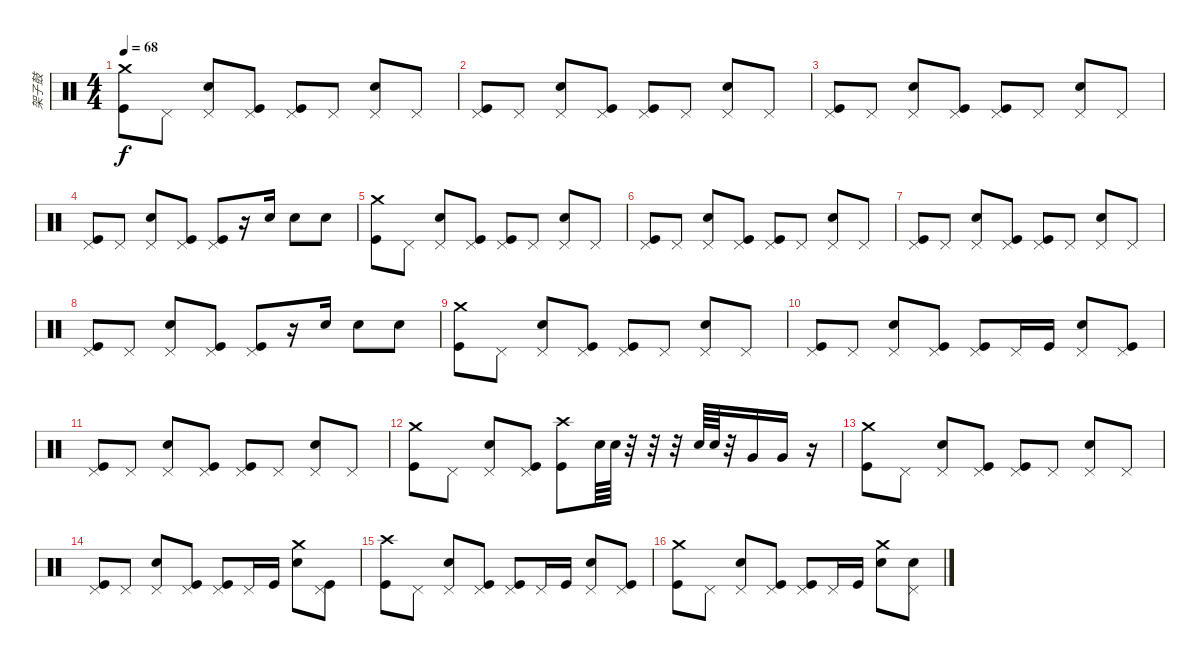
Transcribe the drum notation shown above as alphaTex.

\track ("架子鼓" "架子鼓") {instrument percussion}
\staff {score}
\articulation defaults
\ts (4 4)
\tempo 68
\clef neutral
\ks c
("Crash medium (hit)" "Kick (hit)").8{dy f} "Pedal Hi-Hat (hit)".8 ("Pedal Hi-Hat (hit)" "Snare (hit) 2").8 ("Pedal Hi-Hat (hit)" "Kick (hit)").8 ("Pedal Hi-Hat (hit)" "Kick (hit)").8 "Pedal Hi-Hat (hit)".8 ("Pedal Hi-Hat (hit)" "Snare (hit) 2").8 "Pedal Hi-Hat (hit)".8 |
("Pedal Hi-Hat (hit)" "Kick (hit)").8 "Pedal Hi-Hat (hit)".8 ("Pedal Hi-Hat (hit)" "Snare (hit) 2").8 ("Pedal Hi-Hat (hit)" "Kick (hit)").8 ("Pedal Hi-Hat (hit)" "Kick (hit)").8 "Pedal Hi-Hat (hit)".8 ("Pedal Hi-Hat (hit)" "Snare (hit) 2").8 "Pedal Hi-Hat (hit)".8 |
("Pedal Hi-Hat (hit)" "Kick (hit)").8 "Pedal Hi-Hat (hit)".8 ("Pedal Hi-Hat (hit)" "Snare (hit) 2").8 ("Pedal Hi-Hat (hit)" "Kick (hit)").8 ("Pedal Hi-Hat (hit)" "Kick (hit)").8 "Pedal Hi-Hat (hit)".8 ("Pedal Hi-Hat (hit)" "Snare (hit) 2").8 "Pedal Hi-Hat (hit)".8 |
("Pedal Hi-Hat (hit)" "Kick (hit)").8 "Pedal Hi-Hat (hit)".8 ("Pedal Hi-Hat (hit)" "Snare (hit) 2").8 ("Pedal Hi-Hat (hit)" "Kick (hit)").8 ("Pedal Hi-Hat (hit)" "Kick (hit)").8 r.16 "Snare (hit) 2".16 "Snare (hit) 2".8 "Snare (hit) 2".8 |
("Crash medium (hit)" "Kick (hit)").8 "Pedal Hi-Hat (hit)".8 ("Pedal Hi-Hat (hit)" "Snare (hit) 2").8 ("Pedal Hi-Hat (hit)" "Kick (hit)").8 ("Pedal Hi-Hat (hit)" "Kick (hit)").8 "Pedal Hi-Hat (hit)".8 ("Pedal Hi-Hat (hit)" "Snare (hit) 2").8 "Pedal Hi-Hat (hit)".8 |
("Pedal Hi-Hat (hit)" "Kick (hit)").8 "Pedal Hi-Hat (hit)".8 ("Pedal Hi-Hat (hit)" "Snare (hit) 2").8 ("Pedal Hi-Hat (hit)" "Kick (hit)").8 ("Pedal Hi-Hat (hit)" "Kick (hit)").8 "Pedal Hi-Hat (hit)".8 ("Pedal Hi-Hat (hit)" "Snare (hit) 2").8 "Pedal Hi-Hat (hit)".8 |
("Pedal Hi-Hat (hit)" "Kick (hit)").8 "Pedal Hi-Hat (hit)".8 ("Pedal Hi-Hat (hit)" "Snare (hit) 2").8 ("Pedal Hi-Hat (hit)" "Kick (hit)").8 ("Pedal Hi-Hat (hit)" "Kick (hit)").8 "Pedal Hi-Hat (hit)".8 ("Pedal Hi-Hat (hit)" "Snare (hit) 2").8 "Pedal Hi-Hat (hit)".8 |
("Pedal Hi-Hat (hit)" "Kick (hit)").8 "Pedal Hi-Hat (hit)".8 ("Pedal Hi-Hat (hit)" "Snare (hit) 2").8 ("Pedal Hi-Hat (hit)" "Kick (hit)").8 ("Pedal Hi-Hat (hit)" "Kick (hit)").8 r.16 "Snare (hit) 2".16 "Snare (hit) 2".8 "Snare (hit) 2".8 |
("Crash medium (hit)" "Kick (hit)").8 "Pedal Hi-Hat (hit)".8 ("Pedal Hi-Hat (hit)" "Snare (hit) 2").8 ("Pedal Hi-Hat (hit)" "Kick (hit)").8 ("Pedal Hi-Hat (hit)" "Kick (hit)").8 "Pedal Hi-Hat (hit)".8 ("Pedal Hi-Hat (hit)" "Snare (hit) 2").8 "Pedal Hi-Hat (hit)".8 |
("Pedal Hi-Hat (hit)" "Kick (hit)").8 "Pedal Hi-Hat (hit)".8 ("Pedal Hi-Hat (hit)" "Snare (hit) 2").8 ("Pedal Hi-Hat (hit)" "Kick (hit)").8 ("Pedal Hi-Hat (hit)" "Kick (hit)").8 "Pedal Hi-Hat (hit)".16 "Kick (hit)".16 ("Pedal Hi-Hat (hit)" "Snare (hit) 2").8 ("Pedal Hi-Hat (hit)" "Kick (hit)").8 |
("Pedal Hi-Hat (hit)" "Kick (hit)").8 "Pedal Hi-Hat (hit)".8 ("Pedal Hi-Hat (hit)" "Snare (hit) 2").8 ("Pedal Hi-Hat (hit)" "Kick (hit)").8 ("Pedal Hi-Hat (hit)" "Kick (hit)").8 "Pedal Hi-Hat (hit)".8 ("Pedal Hi-Hat (hit)" "Snare (hit) 2").8 "Pedal Hi-Hat (hit)".8 |
("Crash medium (hit)" "Kick (hit)").8 "Pedal Hi-Hat (hit)".8 ("Pedal Hi-Hat (hit)" "Snare (hit) 2").8 ("Pedal Hi-Hat (hit)" "Kick (hit)").8 ("Crash high (hit)" "Kick (hit)").8 "Snare (hit) 2".64 "Snare (hit) 2".64 r.32 r.32 r.32 "Snare (hit) 2".64 "Snare (hit) 2".64 r.32 "Very Low Tom (hit)".16 "Very Low Tom (hit)".16 r.16 |
("Crash medium (hit)" "Kick (hit)").8 "Pedal Hi-Hat (hit)".8 ("Pedal Hi-Hat (hit)" "Snare (hit) 2").8 ("Pedal Hi-Hat (hit)" "Kick (hit)").8 ("Pedal Hi-Hat (hit)" "Kick (hit)").8 "Pedal Hi-Hat (hit)".8 ("Pedal Hi-Hat (hit)" "Snare (hit) 2").8 "Pedal Hi-Hat (hit)".8 |
("Pedal Hi-Hat (hit)" "Kick (hit)").8 "Pedal Hi-Hat (hit)".8 ("Pedal Hi-Hat (hit)" "Snare (hit) 2").8 ("Pedal Hi-Hat (hit)" "Kick (hit)").8 ("Pedal Hi-Hat (hit)" "Kick (hit)").8 "Pedal Hi-Hat (hit)".16 "Kick (hit)".16 ("Crash medium (hit)" "Snare (hit) 2").8 ("Pedal Hi-Hat (hit)" "Kick (hit)").8 |
("Crash high (hit)" "Kick (hit)").8 "Pedal Hi-Hat (hit)".8 ("Pedal Hi-Hat (hit)" "Snare (hit) 2").8 ("Pedal Hi-Hat (hit)" "Kick (hit)").8 ("Pedal Hi-Hat (hit)" "Kick (hit)").8 "Pedal Hi-Hat (hit)".16 "Kick (hit)".16 ("Pedal Hi-Hat (hit)" "Snare (hit) 2").8 ("Pedal Hi-Hat (hit)" "Kick (hit)").8 |
("Crash medium (hit)" "Kick (hit)").8 "Pedal Hi-Hat (hit)".8 ("Pedal Hi-Hat (hit)" "Snare (hit) 2").8 ("Pedal Hi-Hat (hit)" "Kick (hit)").8 ("Pedal Hi-Hat (hit)" "Kick (hit)").8 "Pedal Hi-Hat (hit)".16 "Kick (hit)".16 ("Crash medium (hit)" "Snare (hit) 2").8 ("Pedal Hi-Hat (hit)" "Snare (hit) 2").8
